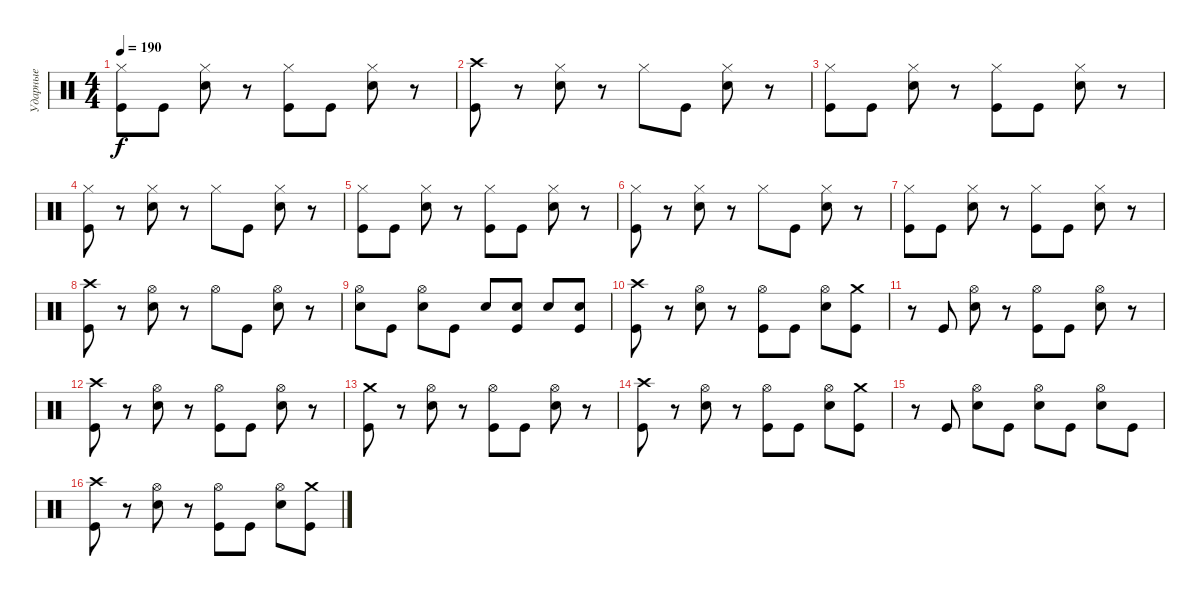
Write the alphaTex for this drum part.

\track ("Ударные" "Ударные") {instrument percussion}
\staff {score}
\articulation defaults
\ts (4 4)
\tempo 190
\clef neutral
\ks c
("Kick (hit)" "Hi-Hat (closed)").8{dy f} "Kick (hit)".8 ("Snare (hit) 2" "Hi-Hat (closed)").8 r.8 ("Kick (hit)" "Hi-Hat (closed)").8 "Kick (hit)".8 ("Snare (hit) 2" "Hi-Hat (closed)").8 r.8 |
("Kick (hit)" "Crash high (hit)").8 r.8 ("Snare (hit) 2" "Hi-Hat (closed)").8 r.8 "Hi-Hat (closed)".8 "Kick (hit)".8 ("Snare (hit) 2" "Hi-Hat (closed)").8 r.8 |
("Kick (hit)" "Hi-Hat (closed)").8 "Kick (hit)".8 ("Snare (hit) 2" "Hi-Hat (closed)").8 r.8 ("Kick (hit)" "Hi-Hat (closed)").8 "Kick (hit)".8 ("Snare (hit) 2" "Hi-Hat (closed)").8 r.8 |
("Kick (hit)" "Hi-Hat (closed)").8 r.8 ("Snare (hit) 2" "Hi-Hat (closed)").8 r.8 "Hi-Hat (closed)".8 "Kick (hit)".8 ("Snare (hit) 2" "Hi-Hat (closed)").8 r.8 |
("Kick (hit)" "Hi-Hat (closed)").8 "Kick (hit)".8 ("Snare (hit) 2" "Hi-Hat (closed)").8 r.8 ("Kick (hit)" "Hi-Hat (closed)").8 "Kick (hit)".8 ("Snare (hit) 2" "Hi-Hat (closed)").8 r.8 |
("Kick (hit)" "Hi-Hat (closed)").8 r.8 ("Snare (hit) 2" "Hi-Hat (closed)").8 r.8 "Hi-Hat (closed)".8 "Kick (hit)".8 ("Snare (hit) 2" "Hi-Hat (closed)").8 r.8 |
("Kick (hit)" "Hi-Hat (closed)").8 "Kick (hit)".8 ("Snare (hit) 2" "Hi-Hat (closed)").8 r.8 ("Kick (hit)" "Hi-Hat (closed)").8 "Kick (hit)".8 ("Snare (hit) 2" "Hi-Hat (closed)").8 r.8 |
("Kick (hit)" "Crash high (hit)").8 r.8 ("Snare (hit) 2" "Hi-Hat (open)").8 r.8 "Hi-Hat (open)".8 "Kick (hit)".8 ("Snare (hit) 2" "Hi-Hat (open)").8 r.8 |
("Snare (hit) 2" "Hi-Hat (open)").8 "Kick (hit)".8 ("Snare (hit) 2" "Hi-Hat (open)").8 "Kick (hit)".8 "Snare (hit) 2".8 ("Kick (hit)" "Snare (hit) 2").8 "Snare (hit) 2".8 ("Kick (hit)" "Snare (hit) 2").8 |
("Kick (hit)" "Crash high (hit)").8 r.8 ("Snare (hit) 2" "Hi-Hat (open)").8 r.8 ("Kick (hit)" "Hi-Hat (open)").8 "Kick (hit)".8 ("Snare (hit) 2" "Hi-Hat (open)").8 ("Kick (hit)" "Crash medium (hit)").8 |
r.8 "Kick (hit)".8 ("Snare (hit) 2" "Hi-Hat (open)").8 r.8 ("Kick (hit)" "Hi-Hat (open)").8 "Kick (hit)".8 ("Snare (hit) 2" "Hi-Hat (open)").8 r.8 |
("Kick (hit)" "Crash high (hit)").8 r.8 ("Snare (hit) 2" "Hi-Hat (open)").8 r.8 ("Kick (hit)" "Hi-Hat (open)").8 "Kick (hit)".8 ("Snare (hit) 2" "Hi-Hat (open)").8 r.8 |
("Kick (hit)" "Crash medium (hit)").8 r.8 ("Snare (hit) 2" "Hi-Hat (open)").8 r.8 ("Kick (hit)" "Hi-Hat (open)").8 "Kick (hit)".8 ("Snare (hit) 2" "Hi-Hat (open)").8 r.8 |
("Kick (hit)" "Crash high (hit)").8 r.8 ("Snare (hit) 2" "Hi-Hat (open)").8 r.8 ("Kick (hit)" "Hi-Hat (open)").8 "Kick (hit)".8 ("Snare (hit) 2" "Hi-Hat (open)").8 ("Kick (hit)" "Crash medium (hit)").8 |
r.8 "Kick (hit)".8 ("Snare (hit) 2" "Hi-Hat (open)").8 "Kick (hit)".8 ("Snare (hit) 2" "Hi-Hat (open)").8 "Kick (hit)".8 ("Snare (hit) 2" "Hi-Hat (open)").8 "Kick (hit)".8 |
("Kick (hit)" "Crash high (hit)").8 r.8 ("Snare (hit) 2" "Hi-Hat (open)").8 r.8 ("Kick (hit)" "Hi-Hat (open)").8 "Kick (hit)".8 ("Snare (hit) 2" "Hi-Hat (open)").8 ("Kick (hit)" "Crash medium (hit)").8
